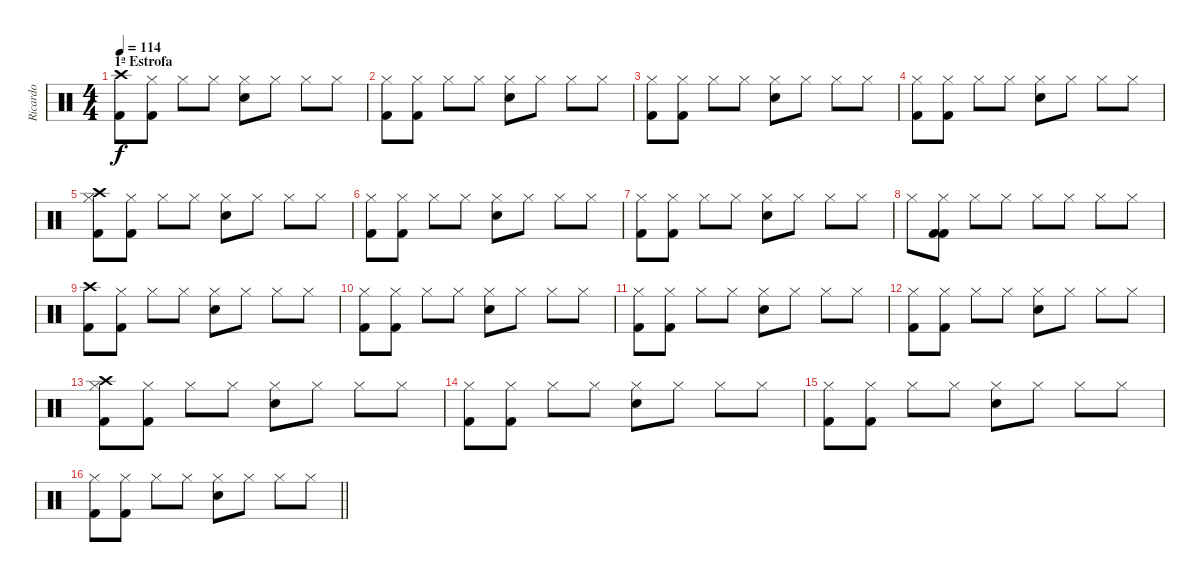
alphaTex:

\track ("Ricardo" "Ricardo") {instrument percussion}
\staff {score}
\articulation defaults
\ts (4 4)
\section ("" "1ª Estrofa")
\tempo 114
\clef neutral
\ks c
("Crash high (hit)" "Kick (hit) 2").8{dy f} ("Hi-Hat (closed)" "Kick (hit) 2").8 "Hi-Hat (closed)".8 "Hi-Hat (closed)".8 ("Hi-Hat (closed)" "Snare (hit) 2").8 "Hi-Hat (closed)".8 "Hi-Hat (closed)".8 "Hi-Hat (closed)".8 |
("Hi-Hat (closed)" "Kick (hit) 2").8 ("Hi-Hat (closed)" "Kick (hit) 2").8 "Hi-Hat (closed)".8 "Hi-Hat (closed)".8 ("Hi-Hat (closed)" "Snare (hit) 2").8 "Hi-Hat (closed)".8 "Hi-Hat (closed)".8 "Hi-Hat (closed)".8 |
("Hi-Hat (closed)" "Kick (hit) 2").8 ("Hi-Hat (closed)" "Kick (hit) 2").8 "Hi-Hat (closed)".8 "Hi-Hat (closed)".8 ("Hi-Hat (closed)" "Snare (hit) 2").8 "Hi-Hat (closed)".8 "Hi-Hat (closed)".8 "Hi-Hat (closed)".8 |
("Hi-Hat (closed)" "Kick (hit) 2").8 ("Hi-Hat (closed)" "Kick (hit) 2").8 "Hi-Hat (closed)".8 "Hi-Hat (closed)".8 ("Hi-Hat (closed)" "Snare (hit) 2").8 "Hi-Hat (closed)".8 "Hi-Hat (closed)".8 "Hi-Hat (closed)".8 |
("Crash high (hit)" "Hi-Hat (closed)" "Kick (hit) 2").8 ("Hi-Hat (closed)" "Kick (hit) 2").8 "Hi-Hat (closed)".8 "Hi-Hat (closed)".8 ("Hi-Hat (closed)" "Snare (hit) 2").8 "Hi-Hat (closed)".8 "Hi-Hat (closed)".8 "Hi-Hat (closed)".8 |
("Hi-Hat (closed)" "Kick (hit) 2").8 ("Hi-Hat (closed)" "Kick (hit) 2").8 "Hi-Hat (closed)".8 "Hi-Hat (closed)".8 ("Hi-Hat (closed)" "Snare (hit) 2").8 "Hi-Hat (closed)".8 "Hi-Hat (closed)".8 "Hi-Hat (closed)".8 |
("Hi-Hat (closed)" "Kick (hit) 2").8 ("Hi-Hat (closed)" "Kick (hit) 2").8 "Hi-Hat (closed)".8 "Hi-Hat (closed)".8 ("Hi-Hat (closed)" "Snare (hit) 2").8 "Hi-Hat (closed)".8 "Hi-Hat (closed)".8 "Hi-Hat (closed)".8 |
"Hi-Hat (closed)".8 ("Hi-Hat (closed)" "Kick (hit) 2" "Kick (hit) 2").8 "Hi-Hat (closed)".8 "Hi-Hat (closed)".8 "Hi-Hat (closed)".8 "Hi-Hat (closed)".8 "Hi-Hat (closed)".8 "Hi-Hat (closed)".8 |
("Crash high (hit)" "Kick (hit) 2").8 ("Hi-Hat (closed)" "Kick (hit) 2").8 "Hi-Hat (closed)".8 "Hi-Hat (closed)".8 ("Hi-Hat (closed)" "Snare (hit) 2").8 "Hi-Hat (closed)".8 "Hi-Hat (closed)".8 "Hi-Hat (closed)".8 |
("Hi-Hat (closed)" "Kick (hit) 2").8 ("Hi-Hat (closed)" "Kick (hit) 2").8 "Hi-Hat (closed)".8 "Hi-Hat (closed)".8 ("Hi-Hat (closed)" "Snare (hit) 2").8 "Hi-Hat (closed)".8 "Hi-Hat (closed)".8 "Hi-Hat (closed)".8 |
("Hi-Hat (closed)" "Kick (hit) 2").8 ("Hi-Hat (closed)" "Kick (hit) 2").8 "Hi-Hat (closed)".8 "Hi-Hat (closed)".8 ("Hi-Hat (closed)" "Snare (hit) 2").8 "Hi-Hat (closed)".8 "Hi-Hat (closed)".8 "Hi-Hat (closed)".8 |
("Hi-Hat (closed)" "Kick (hit) 2").8 ("Hi-Hat (closed)" "Kick (hit) 2").8 "Hi-Hat (closed)".8 "Hi-Hat (closed)".8 ("Hi-Hat (closed)" "Snare (hit) 2").8 "Hi-Hat (closed)".8 "Hi-Hat (closed)".8 "Hi-Hat (closed)".8 |
("Crash high (hit)" "Hi-Hat (closed)" "Kick (hit) 2").8 ("Hi-Hat (closed)" "Kick (hit) 2").8 "Hi-Hat (closed)".8 "Hi-Hat (closed)".8 ("Hi-Hat (closed)" "Snare (hit) 2").8 "Hi-Hat (closed)".8 "Hi-Hat (closed)".8 "Hi-Hat (closed)".8 |
("Hi-Hat (closed)" "Kick (hit) 2").8 ("Hi-Hat (closed)" "Kick (hit) 2").8 "Hi-Hat (closed)".8 "Hi-Hat (closed)".8 ("Hi-Hat (closed)" "Snare (hit) 2").8 "Hi-Hat (closed)".8 "Hi-Hat (closed)".8 "Hi-Hat (closed)".8 |
("Hi-Hat (closed)" "Kick (hit) 2").8 ("Hi-Hat (closed)" "Kick (hit) 2").8 "Hi-Hat (closed)".8 "Hi-Hat (closed)".8 ("Hi-Hat (closed)" "Snare (hit) 2").8 "Hi-Hat (closed)".8 "Hi-Hat (closed)".8 "Hi-Hat (closed)".8 |
\barLineRight lightlight
("Hi-Hat (closed)" "Kick (hit) 2").8 ("Hi-Hat (closed)" "Kick (hit) 2").8 "Hi-Hat (closed)".8 "Hi-Hat (closed)".8 ("Hi-Hat (closed)" "Snare (hit) 2").8 "Hi-Hat (closed)".8 "Hi-Hat (closed)".8 "Hi-Hat (closed)".8
